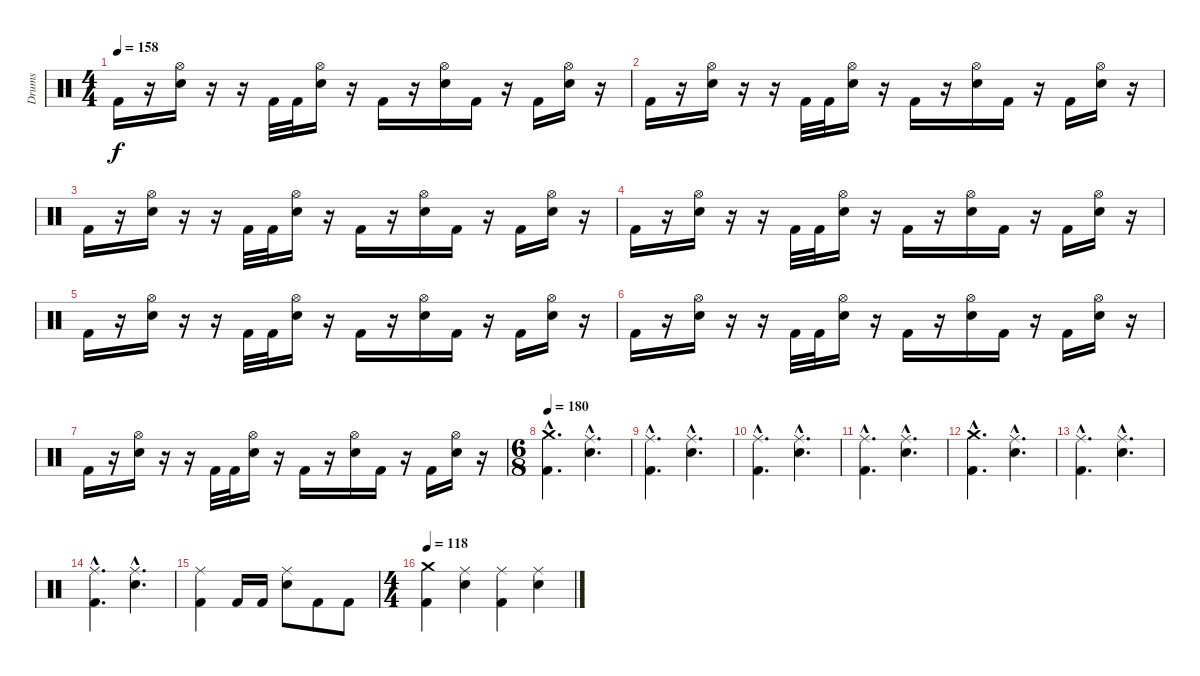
\track ("Drums" "Drums") {instrument percussion}
\staff {score}
\articulation defaults
\ts (4 4)
\tempo 158
\clef neutral
\ks c "Kick (hit) 2".16{dy f}
r.16 ("Hi-Hat (open)" "Electric Snare (hit)").16 r.16 r.16 "Kick (hit) 2".32 "Kick (hit) 2".32 ("Hi-Hat (open)" "Electric Snare (hit)").16 r.16 "Kick (hit) 2".16 r.16 ("Hi-Hat (open)" "Electric Snare (hit)").16 "Kick (hit) 2".16 r.16 "Kick (hit) 2".16 ("Hi-Hat (open)" "Electric Snare (hit)").16 r.16 |
"Kick (hit) 2".16 r.16 ("Hi-Hat (open)" "Electric Snare (hit)").16 r.16 r.16 "Kick (hit) 2".32 "Kick (hit) 2".32 ("Hi-Hat (open)" "Electric Snare (hit)").16 r.16 "Kick (hit) 2".16 r.16 ("Hi-Hat (open)" "Electric Snare (hit)").16 "Kick (hit) 2".16 r.16 "Kick (hit) 2".16 ("Hi-Hat (open)" "Electric Snare (hit)").16 r.16 |
"Kick (hit) 2".16 r.16 ("Hi-Hat (open)" "Electric Snare (hit)").16 r.16 r.16 "Kick (hit) 2".32 "Kick (hit) 2".32 ("Hi-Hat (open)" "Electric Snare (hit)").16 r.16 "Kick (hit) 2".16 r.16 ("Hi-Hat (open)" "Electric Snare (hit)").16 "Kick (hit) 2".16 r.16 "Kick (hit) 2".16 ("Hi-Hat (open)" "Electric Snare (hit)").16 r.16 |
"Kick (hit) 2".16 r.16 ("Hi-Hat (open)" "Electric Snare (hit)").16 r.16 r.16 "Kick (hit) 2".32 "Kick (hit) 2".32 ("Hi-Hat (open)" "Electric Snare (hit)").16 r.16 "Kick (hit) 2".16 r.16 ("Hi-Hat (open)" "Electric Snare (hit)").16 "Kick (hit) 2".16 r.16 "Kick (hit) 2".16 ("Hi-Hat (open)" "Electric Snare (hit)").16 r.16 |
"Kick (hit) 2".16 r.16 ("Hi-Hat (open)" "Electric Snare (hit)").16 r.16 r.16 "Kick (hit) 2".32 "Kick (hit) 2".32 ("Hi-Hat (open)" "Electric Snare (hit)").16 r.16 "Kick (hit) 2".16 r.16 ("Hi-Hat (open)" "Electric Snare (hit)").16 "Kick (hit) 2".16 r.16 "Kick (hit) 2".16 ("Hi-Hat (open)" "Electric Snare (hit)").16 r.16 |
"Kick (hit) 2".16 r.16 ("Hi-Hat (open)" "Electric Snare (hit)").16 r.16 r.16 "Kick (hit) 2".32 "Kick (hit) 2".32 ("Hi-Hat (open)" "Electric Snare (hit)").16 r.16 "Kick (hit) 2".16 r.16 ("Hi-Hat (open)" "Electric Snare (hit)").16 "Kick (hit) 2".16 r.16 "Kick (hit) 2".16 ("Hi-Hat (open)" "Electric Snare (hit)").16 r.16 |
"Kick (hit) 2".16 r.16 ("Hi-Hat (open)" "Electric Snare (hit)").16 r.16 r.16 "Kick (hit) 2".32 "Kick (hit) 2".32 ("Hi-Hat (open)" "Electric Snare (hit)").16 r.16 "Kick (hit) 2".16 r.16 ("Hi-Hat (open)" "Electric Snare (hit)").16 "Kick (hit) 2".16 r.16 "Kick (hit) 2".16 ("Hi-Hat (open)" "Electric Snare (hit)").16 r.16 |
\ts (6 8)
\section ("" "")
\tempo 180
("Crash medium (hit)"{hac} "Kick (hit) 2"{hac}).4{d} ("Ride (middle)"{hac} "Electric Snare (hit)"{hac}).4{d} |
("Ride (middle)"{hac} "Kick (hit) 2"{hac}).4{d} ("Ride (middle)"{hac} "Electric Snare (hit)"{hac}).4{d} |
("Ride (middle)"{hac} "Kick (hit) 2"{hac}).4{d} ("Ride (middle)"{hac} "Electric Snare (hit)"{hac}).4{d} |
("Ride (middle)"{hac} "Kick (hit) 2"{hac}).4{d} ("Ride (middle)"{hac} "Electric Snare (hit)"{hac}).4{d} |
("Crash medium (hit)"{hac} "Kick (hit) 2"{hac}).4{d} ("Ride (middle)"{hac} "Electric Snare (hit)"{hac}).4{d} |
("Ride (middle)"{hac} "Kick (hit) 2"{hac}).4{d} ("Ride (middle)"{hac} "Electric Snare (hit)"{hac}).4{d} |
("Ride (middle)"{hac} "Kick (hit) 2"{hac}).4{d} ("Ride (middle)"{hac} "Electric Snare (hit)"{hac}).4{d} |
("Ride (middle)" "Kick (hit) 2").4 "Kick (hit) 2".16 "Kick (hit) 2".16 ("Ride (middle)" "Electric Snare (hit)").8 "Kick (hit) 2".8 "Kick (hit) 2".8 |
\ts (4 4)
\section ("" "")
\tempo 118
("Crash medium (hit)" "Kick (hit) 2").4 ("Ride (middle)" "Electric Snare (hit)").4 ("Ride (middle)" "Kick (hit) 2").4 ("Ride (middle)" "Electric Snare (hit)").4
